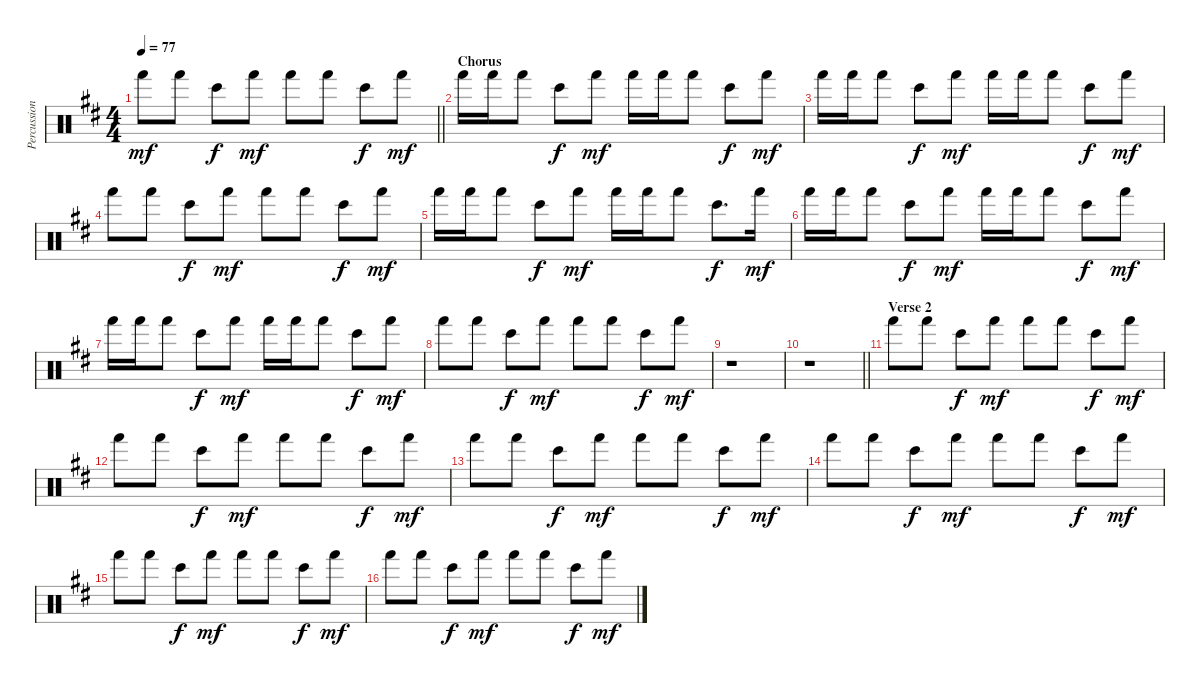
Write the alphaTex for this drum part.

\track ("Percussion" "Percussion") {instrument percussion}
\staff {score}
\articulation defaults
\ts (4 4)
\tempo 77
\clef neutral
\barLineRight lightlight
\ks d "Hand (hit)".8{dy mf} "Hand (hit)".8 "Bongo High (hit)".8{dy f} "Hand (hit)".8{dy mf} "Hand (hit)".8 "Hand (hit)".8 "Bongo High (hit)".8{dy f} "Hand (hit)".8{dy mf}
|
\section ("" "Chorus")
"Hand (hit)".16 "Hand (hit)".16 "Hand (hit)".8 "Bongo High (hit)".8{dy f} "Hand (hit)".8{dy mf} "Hand (hit)".16 "Hand (hit)".16 "Hand (hit)".8 "Bongo High (hit)".8{dy f} "Hand (hit)".8{dy mf} |
"Hand (hit)".16 "Hand (hit)".16 "Hand (hit)".8 "Bongo High (hit)".8{dy f} "Hand (hit)".8{dy mf} "Hand (hit)".16 "Hand (hit)".16 "Hand (hit)".8 "Bongo High (hit)".8{dy f} "Hand (hit)".8{dy mf} |
"Hand (hit)".8 "Hand (hit)".8 "Bongo High (hit)".8{dy f} "Hand (hit)".8{dy mf} "Hand (hit)".8 "Hand (hit)".8 "Bongo High (hit)".8{dy f} "Hand (hit)".8{dy mf} |
"Hand (hit)".16 "Hand (hit)".16 "Hand (hit)".8 "Bongo High (hit)".8{dy f} "Hand (hit)".8{dy mf} "Hand (hit)".16 "Hand (hit)".16 "Hand (hit)".8 "Bongo High (hit)".8{d dy f} "Hand (hit)".16{dy mf} |
"Hand (hit)".16 "Hand (hit)".16 "Hand (hit)".8 "Bongo High (hit)".8{dy f} "Hand (hit)".8{dy mf} "Hand (hit)".16 "Hand (hit)".16 "Hand (hit)".8 "Bongo High (hit)".8{dy f} "Hand (hit)".8{dy mf} |
"Hand (hit)".16 "Hand (hit)".16 "Hand (hit)".8 "Bongo High (hit)".8{dy f} "Hand (hit)".8{dy mf} "Hand (hit)".16 "Hand (hit)".16 "Hand (hit)".8 "Bongo High (hit)".8{dy f} "Hand (hit)".8{dy mf} |
"Hand (hit)".8 "Hand (hit)".8 "Bongo High (hit)".8{dy f} "Hand (hit)".8{dy mf} "Hand (hit)".8 "Hand (hit)".8 "Bongo High (hit)".8{dy f} "Hand (hit)".8{dy mf} |
r.1 |
\barLineRight lightlight
r.1 |
\section ("" "Verse 2")
"Hand (hit)".8 "Hand (hit)".8 "Bongo High (hit)".8{dy f} "Hand (hit)".8{dy mf} "Hand (hit)".8 "Hand (hit)".8 "Bongo High (hit)".8{dy f} "Hand (hit)".8{dy mf} |
"Hand (hit)".8 "Hand (hit)".8 "Bongo High (hit)".8{dy f} "Hand (hit)".8{dy mf} "Hand (hit)".8 "Hand (hit)".8 "Bongo High (hit)".8{dy f} "Hand (hit)".8{dy mf} |
"Hand (hit)".8 "Hand (hit)".8 "Bongo High (hit)".8{dy f} "Hand (hit)".8{dy mf} "Hand (hit)".8 "Hand (hit)".8 "Bongo High (hit)".8{dy f} "Hand (hit)".8{dy mf} |
"Hand (hit)".8 "Hand (hit)".8 "Bongo High (hit)".8{dy f} "Hand (hit)".8{dy mf} "Hand (hit)".8 "Hand (hit)".8 "Bongo High (hit)".8{dy f} "Hand (hit)".8{dy mf} |
"Hand (hit)".8 "Hand (hit)".8 "Bongo High (hit)".8{dy f} "Hand (hit)".8{dy mf} "Hand (hit)".8 "Hand (hit)".8 "Bongo High (hit)".8{dy f} "Hand (hit)".8{dy mf} |
"Hand (hit)".8 "Hand (hit)".8 "Bongo High (hit)".8{dy f} "Hand (hit)".8{dy mf} "Hand (hit)".8 "Hand (hit)".8 "Bongo High (hit)".8{dy f} "Hand (hit)".8{dy mf}
